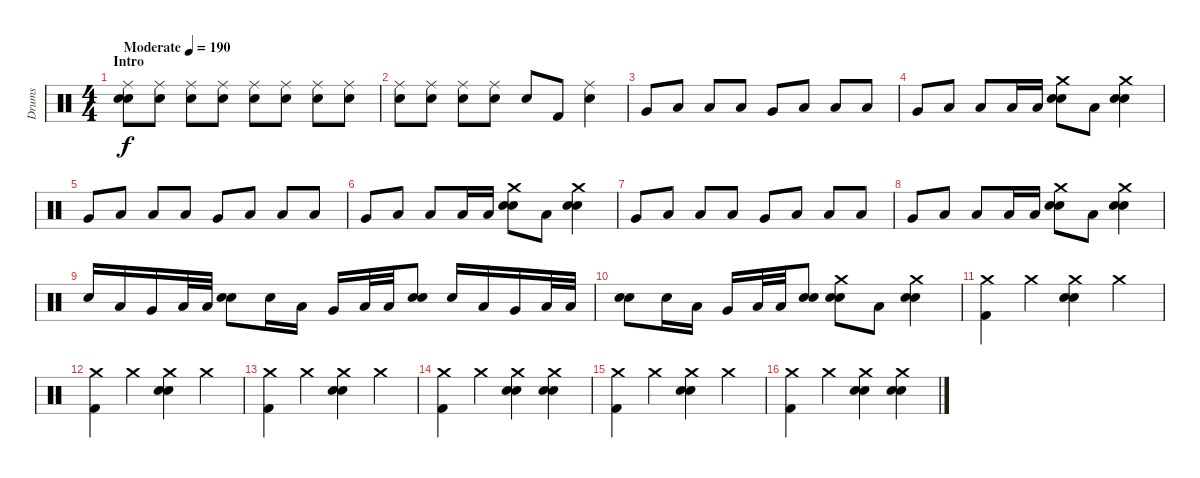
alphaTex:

\track ("Drums" "Drums") {instrument percussion}
\staff {score}
\articulation defaults
\ts (4 4)
\section ("" "Intro")
\tempo (190 "Moderate")
\clef neutral
\ks c
("Ride (middle)" "Electric Snare (hit)" "Snare (hit) 2").8{dy f} ("Ride (middle)" "Snare (hit) 2").8 ("Ride (middle)" "Snare (hit) 2").8 ("Ride (middle)" "Snare (hit) 2").8 ("Ride (middle)" "Snare (hit) 2").8 ("Ride (middle)" "Snare (hit) 2").8 ("Ride (middle)" "Snare (hit) 2").8 ("Ride (middle)" "Snare (hit) 2").8 |
("Ride (middle)" "Snare (hit) 2").8 ("Ride (middle)" "Snare (hit) 2").8 ("Ride (middle)" "Snare (hit) 2").8 ("Ride (middle)" "Snare (hit) 2").8 "Electric Snare (hit)".8 "Kick (hit) 2".8 ("Ride (middle)" "Snare (hit) 2").4 |
"Very Low Tom (hit)".8 "Low Floor Tom (hit)".8 "Low Tom (hit)".8 "Low Floor Tom (hit)".8 "Very Low Tom (hit)".8 "Low Floor Tom (hit)".8 "Low Tom (hit)".8 "Low Floor Tom (hit)".8 |
"Very Low Tom (hit)".8 "Low Floor Tom (hit)".8 "Low Tom (hit)".8 "Low Floor Tom (hit)".16 "Low Floor Tom (hit)".16 ("Crash medium (hit)" "Electric Snare (hit)" "Snare (hit) 2").8 "Low Floor Tom (hit)".8 ("Crash medium (hit)" "Electric Snare (hit)" "Snare (hit) 2").4 |
"Very Low Tom (hit)".8 "Low Floor Tom (hit)".8 "Low Tom (hit)".8 "Low Floor Tom (hit)".8 "Very Low Tom (hit)".8 "Low Floor Tom (hit)".8 "Low Tom (hit)".8 "Low Floor Tom (hit)".8 |
"Very Low Tom (hit)".8 "Low Floor Tom (hit)".8 "Low Tom (hit)".8 "Low Floor Tom (hit)".16 "Low Floor Tom (hit)".16 ("Crash medium (hit)" "Electric Snare (hit)" "Snare (hit) 2").8 "Low Floor Tom (hit)".8 ("Crash medium (hit)" "Electric Snare (hit)" "Snare (hit) 2").4 |
"Very Low Tom (hit)".8 "Low Floor Tom (hit)".8 "Low Tom (hit)".8 "Low Floor Tom (hit)".8 "Very Low Tom (hit)".8 "Low Floor Tom (hit)".8 "Low Tom (hit)".8 "Low Floor Tom (hit)".8 |
"Very Low Tom (hit)".8 "Low Floor Tom (hit)".8 "Low Tom (hit)".8 "Low Floor Tom (hit)".16 "Low Floor Tom (hit)".16 ("Crash medium (hit)" "Electric Snare (hit)" "Snare (hit) 2").8 "Low Floor Tom (hit)".8 ("Crash medium (hit)" "Electric Snare (hit)" "Snare (hit) 2").4 |
"Electric Snare (hit)".16 "Low Tom (hit)".16 "Very Low Tom (hit)".16 "Low Floor Tom (hit)".32 "Low Floor Tom (hit)".32 ("Electric Snare (hit)" "Snare (hit) 2").8 "Electric Snare (hit)".16 "Low Tom (hit)".16 "Very Low Tom (hit)".16 "Low Floor Tom (hit)".32 "Low Floor Tom (hit)".32 ("Electric Snare (hit)" "Snare (hit) 2").8 "Electric Snare (hit)".16 "Low Tom (hit)".16 "Very Low Tom (hit)".16 "Low Floor Tom (hit)".32 "Low Floor Tom (hit)".32 |
("Electric Snare (hit)" "Snare (hit) 2").8 "Electric Snare (hit)".16 "Low Tom (hit)".16 "Very Low Tom (hit)".16 "Low Floor Tom (hit)".32 "Low Floor Tom (hit)".32 ("Electric Snare (hit)" "Snare (hit) 2").8 ("Crash medium (hit)" "Electric Snare (hit)" "Snare (hit) 2").8 "Low Floor Tom (hit)".8 ("Crash medium (hit)" "Electric Snare (hit)" "Snare (hit) 2").4 |
("Crash medium (hit)" "Kick (hit) 2").4 "Crash medium (hit)".4 ("Crash medium (hit)" "Electric Snare (hit)" "Snare (hit) 2").4 "Crash medium (hit)".4 |
("Crash medium (hit)" "Kick (hit) 2").4 "Crash medium (hit)".4 ("Crash medium (hit)" "Electric Snare (hit)" "Snare (hit) 2").4 "Crash medium (hit)".4 |
("Crash medium (hit)" "Kick (hit) 2").4 "Crash medium (hit)".4 ("Crash medium (hit)" "Electric Snare (hit)" "Snare (hit) 2").4 "Crash medium (hit)".4 |
("Crash medium (hit)" "Kick (hit) 2").4 "Crash medium (hit)".4 ("Crash medium (hit)" "Electric Snare (hit)" "Snare (hit) 2").4 ("Crash medium (hit)" "Electric Snare (hit)" "Snare (hit) 2").4 |
("Crash medium (hit)" "Kick (hit) 2").4 "Crash medium (hit)".4 ("Crash medium (hit)" "Electric Snare (hit)" "Snare (hit) 2").4 "Crash medium (hit)".4 |
("Crash medium (hit)" "Kick (hit) 2").4 "Crash medium (hit)".4 ("Crash medium (hit)" "Electric Snare (hit)" "Snare (hit) 2").4 ("Crash medium (hit)" "Electric Snare (hit)" "Snare (hit) 2").4
